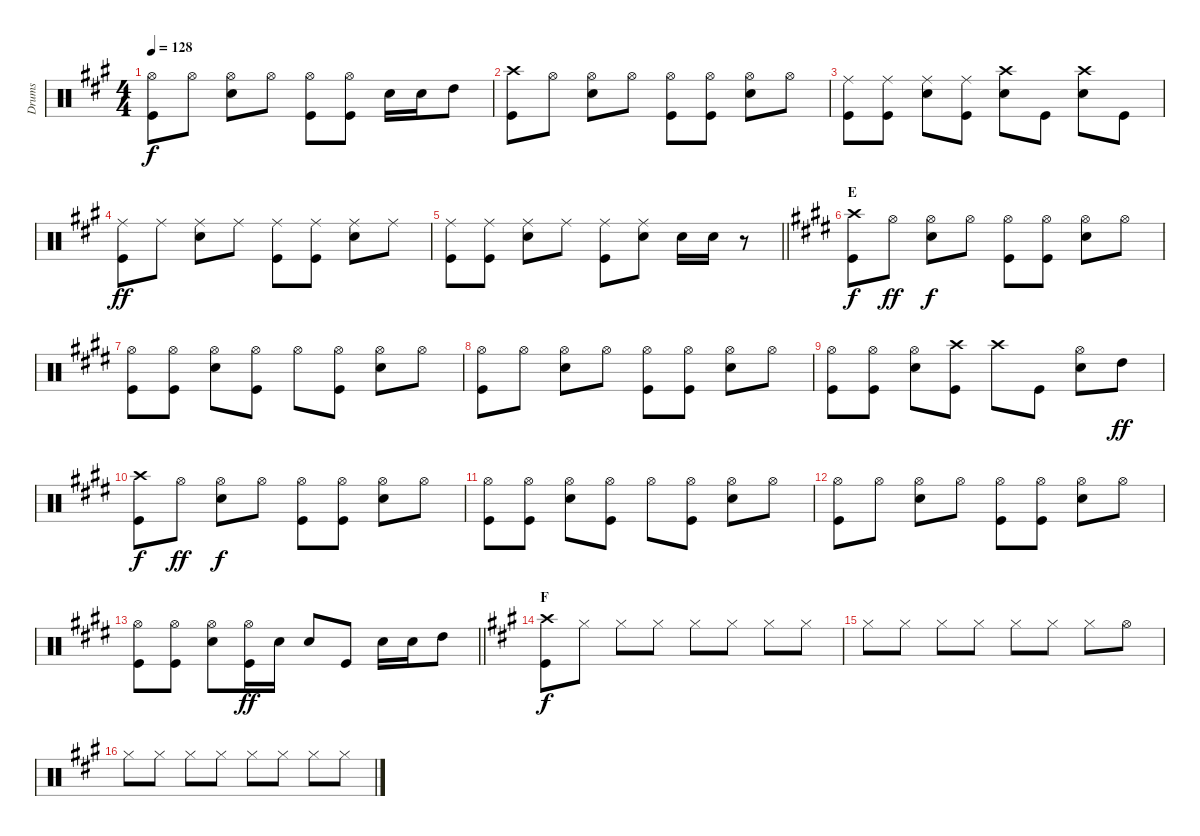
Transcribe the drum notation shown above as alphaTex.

\track ("Drums" "Drums") {instrument percussion}
\staff {score}
\articulation defaults
\ts (4 4)
\tempo 128
\clef neutral
\ks a
("Hi-Hat (open)" "Kick (hit)").8{dy f} "Hi-Hat (open)".8 ("Hi-Hat (open)" "Snare (hit) 2").8 "Hi-Hat (open)".8 ("Hi-Hat (open)" "Kick (hit)").8 ("Hi-Hat (open)" "Kick (hit)").8 "Snare (hit) 2".16 "Snare (hit) 2".16 "High Tom (hit)".8 |
("Crash high (hit)" "Kick (hit)").8 "Hi-Hat (open)".8 ("Hi-Hat (open)" "Snare (hit) 2").8 "Hi-Hat (open)".8 ("Hi-Hat (open)" "Kick (hit)").8 ("Hi-Hat (open)" "Kick (hit)").8 ("Hi-Hat (open)" "Snare (hit) 2").8 "Hi-Hat (open)".8 |
("Ride (middle)" "Kick (hit)").8 ("Ride (middle)" "Kick (hit)").8 ("Ride (middle)" "Snare (hit) 2").8 ("Ride (middle)" "Kick (hit)").8 ("Crash high (hit)" "Snare (hit) 2").8 "Kick (hit)".8 ("Crash high (hit)" "Snare (hit) 2").8 "Kick (hit)".8 |
("Ride (middle)" "Kick (hit)").8{dy ff} "Ride (middle)".8 ("Ride (middle)" "Snare (hit) 2").8 "Ride (middle)".8 ("Ride (middle)" "Kick (hit)").8 ("Ride (middle)" "Kick (hit)").8 ("Ride (middle)" "Snare (hit) 2").8 "Ride (middle)".8 |
\barLineRight lightlight
("Ride (middle)" "Kick (hit)").8 ("Ride (middle)" "Kick (hit)").8 ("Ride (middle)" "Snare (hit) 2").8 "Ride (middle)".8 ("Ride (middle)" "Kick (hit)").8 ("Ride (middle)" "Snare (hit) 2").8 "Snare (hit) 2".16 "Snare (hit) 2".16 r.8 |
\section ("" "E")
\ks e
("Crash high (hit)" "Kick (hit)").8{dy f} "Hi-Hat (open)".8{dy ff} ("Hi-Hat (open)" "Snare (hit) 2").8{dy f} "Hi-Hat (open)".8 ("Hi-Hat (open)" "Kick (hit)").8 ("Hi-Hat (open)" "Kick (hit)").8 ("Hi-Hat (open)" "Snare (hit) 2").8 "Hi-Hat (open)".8 |
("Hi-Hat (open)" "Kick (hit)").8 ("Hi-Hat (open)" "Kick (hit)").8 ("Hi-Hat (open)" "Snare (hit) 2").8 ("Hi-Hat (open)" "Kick (hit)").8 "Hi-Hat (open)".8 ("Hi-Hat (open)" "Kick (hit)").8 ("Hi-Hat (open)" "Snare (hit) 2").8 "Hi-Hat (open)".8 |
("Hi-Hat (open)" "Kick (hit)").8 "Hi-Hat (open)".8 ("Hi-Hat (open)" "Snare (hit) 2").8 "Hi-Hat (open)".8 ("Hi-Hat (open)" "Kick (hit)").8 ("Hi-Hat (open)" "Kick (hit)").8 ("Hi-Hat (open)" "Snare (hit) 2").8 "Hi-Hat (open)".8 |
("Hi-Hat (open)" "Kick (hit)").8 ("Hi-Hat (open)" "Kick (hit)").8 ("Hi-Hat (open)" "Snare (hit) 2").8 ("Crash high (hit)" "Kick (hit)").8 "Crash high (hit)".8 "Kick (hit)".8 ("Hi-Hat (open)" "Snare (hit) 2").8 "High Tom (hit)".8{dy ff} |
("Crash high (hit)" "Kick (hit)").8{dy f} "Hi-Hat (open)".8{dy ff} ("Hi-Hat (open)" "Snare (hit) 2").8{dy f} "Hi-Hat (open)".8 ("Hi-Hat (open)" "Kick (hit)").8 ("Hi-Hat (open)" "Kick (hit)").8 ("Hi-Hat (open)" "Snare (hit) 2").8 "Hi-Hat (open)".8 |
("Hi-Hat (open)" "Kick (hit)").8 ("Hi-Hat (open)" "Kick (hit)").8 ("Hi-Hat (open)" "Snare (hit) 2").8 ("Hi-Hat (open)" "Kick (hit)").8 "Hi-Hat (open)".8 ("Hi-Hat (open)" "Kick (hit)").8 ("Hi-Hat (open)" "Snare (hit) 2").8 "Hi-Hat (open)".8 |
("Hi-Hat (open)" "Kick (hit)").8 "Hi-Hat (open)".8 ("Hi-Hat (open)" "Snare (hit) 2").8 "Hi-Hat (open)".8 ("Hi-Hat (open)" "Kick (hit)").8 ("Hi-Hat (open)" "Kick (hit)").8 ("Hi-Hat (open)" "Snare (hit) 2").8 "Hi-Hat (open)".8 |
\barLineRight lightlight
("Hi-Hat (open)" "Kick (hit)").8 ("Hi-Hat (open)" "Kick (hit)").8 ("Hi-Hat (open)" "Snare (hit) 2").8 ("Hi-Hat (open)" "Kick (hit)").16{dy ff} "Snare (hit) 2".16 "Snare (hit) 2".8 "Kick (hit)".8 "Snare (hit) 2".16 "Snare (hit) 2".16 "High Tom (hit)".8 |
\section ("" "F")
\ks a
("Crash high (hit)" "Kick (hit)").8{dy f} "Hi-Hat (closed)".8 "Hi-Hat (closed)".8 "Hi-Hat (closed)".8 "Hi-Hat (closed)".8 "Hi-Hat (closed)".8 "Hi-Hat (closed)".8 "Hi-Hat (closed)".8 |
"Hi-Hat (closed)".8 "Hi-Hat (closed)".8 "Hi-Hat (closed)".8 "Hi-Hat (closed)".8 "Hi-Hat (closed)".8 "Hi-Hat (closed)".8 "Hi-Hat (closed)".8 "Hi-Hat (open)".8 |
"Hi-Hat (closed)".8 "Hi-Hat (closed)".8 "Hi-Hat (closed)".8 "Hi-Hat (closed)".8 "Hi-Hat (closed)".8 "Hi-Hat (closed)".8 "Hi-Hat (closed)".8 "Hi-Hat (closed)".8
